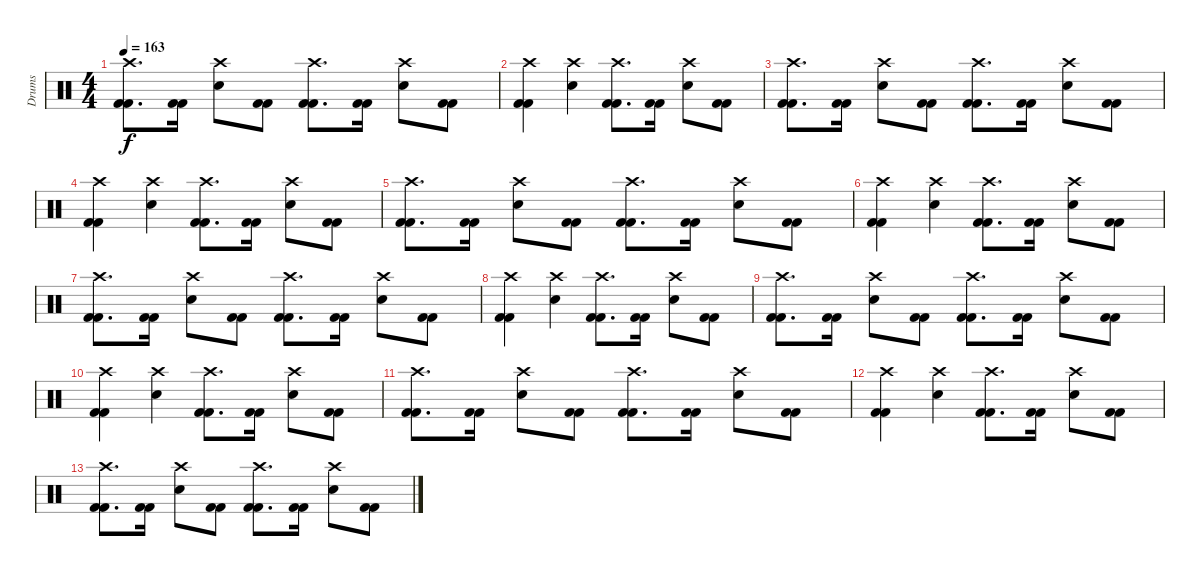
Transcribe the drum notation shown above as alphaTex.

\track ("Drums" "Drums") {instrument percussion}
\staff {score}
\articulation defaults
\ts (4 4)
\tempo 163
\clef neutral
\ks c
("Kick (hit) 2" "Kick (hit) 2" "Crash high (hit)").8{d dy f} ("Kick (hit) 2" "Kick (hit) 2").16 ("Snare (hit) 2" "Crash high (hit)").8 ("Kick (hit) 2" "Kick (hit) 2").8 ("Kick (hit) 2" "Kick (hit) 2" "Crash high (hit)").8{d} ("Kick (hit) 2" "Kick (hit) 2").16 ("Snare (hit) 2" "Crash high (hit)").8 ("Kick (hit) 2" "Kick (hit) 2").8 |
("Kick (hit) 2" "Kick (hit) 2" "Crash high (hit)").4 ("Snare (hit) 2" "Crash high (hit)").4 ("Kick (hit) 2" "Kick (hit) 2" "Crash high (hit)").8{d} ("Kick (hit) 2" "Kick (hit) 2").16 ("Snare (hit) 2" "Crash high (hit)").8 ("Kick (hit) 2" "Kick (hit) 2").8 |
("Kick (hit) 2" "Kick (hit) 2" "Crash high (hit)").8{d} ("Kick (hit) 2" "Kick (hit) 2").16 ("Snare (hit) 2" "Crash high (hit)").8 ("Kick (hit) 2" "Kick (hit) 2").8 ("Kick (hit) 2" "Kick (hit) 2" "Crash high (hit)").8{d} ("Kick (hit) 2" "Kick (hit) 2").16 ("Snare (hit) 2" "Crash high (hit)").8 ("Kick (hit) 2" "Kick (hit) 2").8 |
("Kick (hit) 2" "Kick (hit) 2" "Crash high (hit)").4 ("Snare (hit) 2" "Crash high (hit)").4 ("Kick (hit) 2" "Kick (hit) 2" "Crash high (hit)").8{d} ("Kick (hit) 2" "Kick (hit) 2").16 ("Snare (hit) 2" "Crash high (hit)").8 ("Kick (hit) 2" "Kick (hit) 2").8 |
("Kick (hit) 2" "Kick (hit) 2" "Crash high (hit)").8{d} ("Kick (hit) 2" "Kick (hit) 2").16 ("Snare (hit) 2" "Crash high (hit)").8 ("Kick (hit) 2" "Kick (hit) 2").8 ("Kick (hit) 2" "Kick (hit) 2" "Crash high (hit)").8{d} ("Kick (hit) 2" "Kick (hit) 2").16 ("Snare (hit) 2" "Crash high (hit)").8 ("Kick (hit) 2" "Kick (hit) 2").8 |
("Kick (hit) 2" "Kick (hit) 2" "Crash high (hit)").4 ("Snare (hit) 2" "Crash high (hit)").4 ("Kick (hit) 2" "Kick (hit) 2" "Crash high (hit)").8{d} ("Kick (hit) 2" "Kick (hit) 2").16 ("Snare (hit) 2" "Crash high (hit)").8 ("Kick (hit) 2" "Kick (hit) 2").8 |
("Kick (hit) 2" "Kick (hit) 2" "Crash high (hit)").8{d} ("Kick (hit) 2" "Kick (hit) 2").16 ("Snare (hit) 2" "Crash high (hit)").8 ("Kick (hit) 2" "Kick (hit) 2").8 ("Kick (hit) 2" "Kick (hit) 2" "Crash high (hit)").8{d} ("Kick (hit) 2" "Kick (hit) 2").16 ("Snare (hit) 2" "Crash high (hit)").8 ("Kick (hit) 2" "Kick (hit) 2").8 |
("Kick (hit) 2" "Kick (hit) 2" "Crash high (hit)").4 ("Snare (hit) 2" "Crash high (hit)").4 ("Kick (hit) 2" "Kick (hit) 2" "Crash high (hit)").8{d} ("Kick (hit) 2" "Kick (hit) 2").16 ("Snare (hit) 2" "Crash high (hit)").8 ("Kick (hit) 2" "Kick (hit) 2").8 |
("Kick (hit) 2" "Kick (hit) 2" "Crash high (hit)").8{d} ("Kick (hit) 2" "Kick (hit) 2").16 ("Snare (hit) 2" "Crash high (hit)").8 ("Kick (hit) 2" "Kick (hit) 2").8 ("Kick (hit) 2" "Kick (hit) 2" "Crash high (hit)").8{d} ("Kick (hit) 2" "Kick (hit) 2").16 ("Snare (hit) 2" "Crash high (hit)").8 ("Kick (hit) 2" "Kick (hit) 2").8 |
("Kick (hit) 2" "Kick (hit) 2" "Crash high (hit)").4 ("Snare (hit) 2" "Crash high (hit)").4 ("Kick (hit) 2" "Kick (hit) 2" "Crash high (hit)").8{d} ("Kick (hit) 2" "Kick (hit) 2").16 ("Snare (hit) 2" "Crash high (hit)").8 ("Kick (hit) 2" "Kick (hit) 2").8 |
("Kick (hit) 2" "Kick (hit) 2" "Crash high (hit)").8{d} ("Kick (hit) 2" "Kick (hit) 2").16 ("Snare (hit) 2" "Crash high (hit)").8 ("Kick (hit) 2" "Kick (hit) 2").8 ("Kick (hit) 2" "Kick (hit) 2" "Crash high (hit)").8{d} ("Kick (hit) 2" "Kick (hit) 2").16 ("Snare (hit) 2" "Crash high (hit)").8 ("Kick (hit) 2" "Kick (hit) 2").8 |
("Kick (hit) 2" "Kick (hit) 2" "Crash high (hit)").4 ("Snare (hit) 2" "Crash high (hit)").4 ("Kick (hit) 2" "Kick (hit) 2" "Crash high (hit)").8{d} ("Kick (hit) 2" "Kick (hit) 2").16 ("Snare (hit) 2" "Crash high (hit)").8 ("Kick (hit) 2" "Kick (hit) 2").8 |
("Kick (hit) 2" "Kick (hit) 2" "Crash high (hit)").8{d} ("Kick (hit) 2" "Kick (hit) 2").16 ("Snare (hit) 2" "Crash high (hit)").8 ("Kick (hit) 2" "Kick (hit) 2").8 ("Kick (hit) 2" "Kick (hit) 2" "Crash high (hit)").8{d} ("Kick (hit) 2" "Kick (hit) 2").16 ("Snare (hit) 2" "Crash high (hit)").8 ("Kick (hit) 2" "Kick (hit) 2").8
